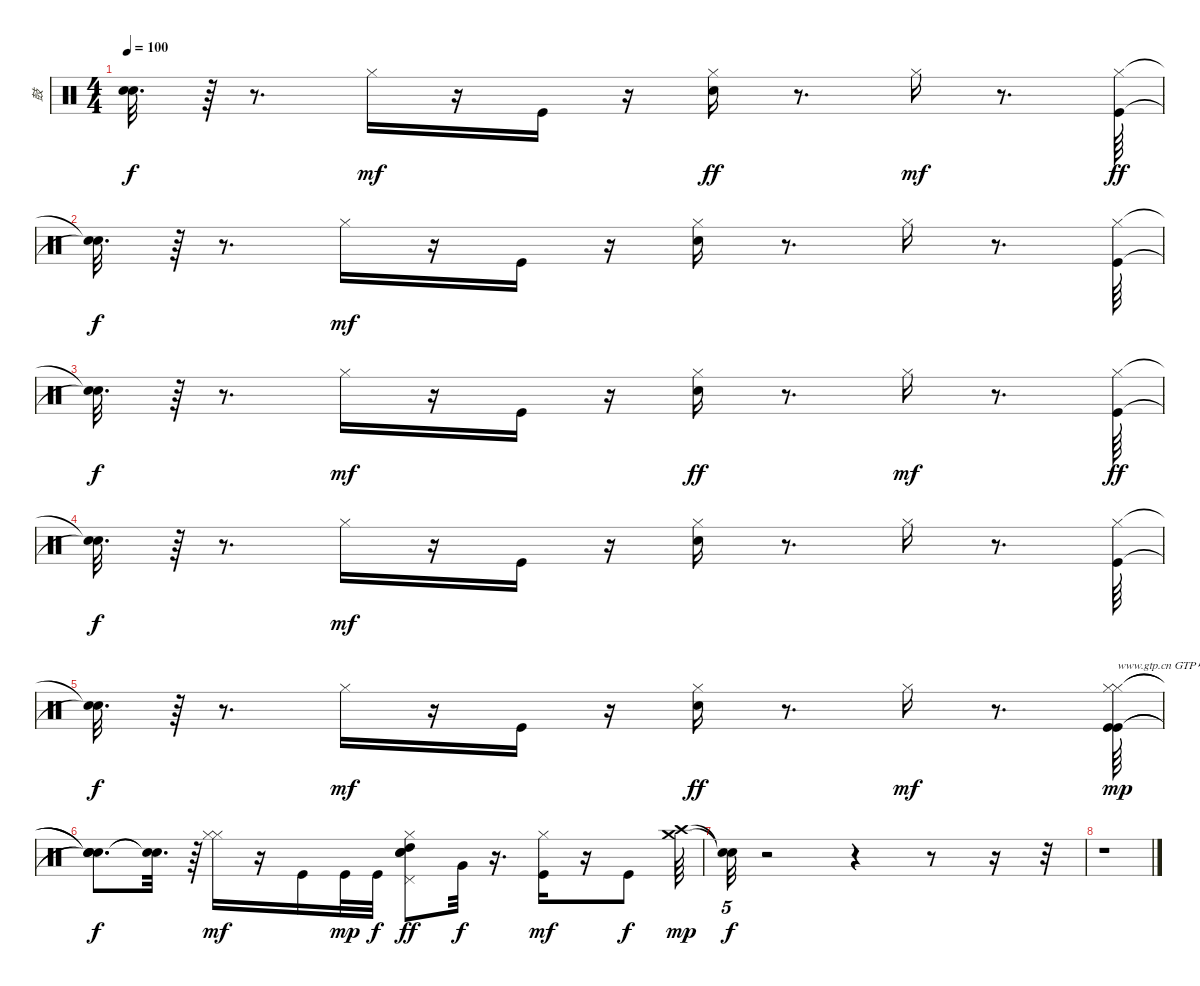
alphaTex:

\track ("鼓" "鼓") {instrument percussion}
\staff {score}
\articulation defaults
\ts (4 4)
\tempo 100
\clef neutral
\ks c
("Snare (hit)"{t} "Snare (hit)"{t}).32{d dy f} r.64 r.8{d} "Hi-Hat (closed)".16{dy mf} r.16 "Kick (hit)".16 r.16 ("Hi-Hat (closed)" "Electric Snare (hit)").16{dy ff} r.8{d} "Hi-Hat (closed)".16{dy mf} r.8{d} ("Kick (hit)" "Hi-Hat (closed)").64{dy ff} |
("Snare (hit)"{t} "Snare (hit)"{t}).32{d dy f} r.64 r.8{d} "Hi-Hat (closed)".16{dy mf} r.16 "Kick (hit)".16 r.16 ("Electric Snare (hit)" "Hi-Hat (closed)").16 r.8{d} "Hi-Hat (closed)".16 r.8{d} ("Kick (hit)" "Hi-Hat (closed)").64 |
("Snare (hit)"{t} "Snare (hit)"{t}).32{d dy f} r.64 r.8{d} "Hi-Hat (closed)".16{dy mf} r.16 "Kick (hit)".16 r.16 ("Hi-Hat (closed)" "Electric Snare (hit)").16{dy ff} r.8{d} "Hi-Hat (closed)".16{dy mf} r.8{d} ("Kick (hit)" "Hi-Hat (closed)").64{dy ff} |
("Snare (hit)"{t} "Snare (hit)"{t}).32{d dy f} r.64 r.8{d} "Hi-Hat (closed)".16{dy mf} r.16 "Kick (hit)".16 r.16 ("Electric Snare (hit)" "Hi-Hat (closed)").16 r.8{d} "Hi-Hat (closed)".16 r.8{d} ("Kick (hit)" "Hi-Hat (closed)").64 |
("Snare (hit)"{t} "Snare (hit)"{t}).32{d dy f} r.64 r.8{d} "Hi-Hat (closed)".16{dy mf} r.16 "Kick (hit)".16 r.16 ("Hi-Hat (closed)" "Electric Snare (hit)").16{dy ff} r.8{d} "Hi-Hat (closed)".16{dy mf} r.8{d} ("Kick (hit)" "Kick (hit)" "Hi-Hat (closed)" "Hi-Hat (closed)").64{txt "www.gtp.cn GTP中文网为您提供优秀的谱子" dy mp} |
("Snare (hit)"{t} "Snare (hit)"{t} "Snare (hit)"{t} "Snare (hit)"{t}).8{d dy f} ("Snare (hit)"{t} "Snare (hit)"{t}).32{d} r.64 ("Hi-Hat (closed)" "Hi-Hat (closed)").16{dy mf} r.16 "Kick (hit)".16 "Kick (hit)".32{dy mp} "Kick (hit)".32{dy f} ("High Tom (hit)" "Pedal Hi-Hat (hit)" "Electric Snare (hit)" "Hi-Hat (closed)" "Electric Snare (hit)").8{dy ff} "Very Low Tom (hit)".32{dy f} r.16{d} ("Kick (hit)" "Hi-Hat (closed)").16{dy mf} r.16 "Kick (hit)".8{dy f} ("Crash medium (hit)" "Crash high (hit)").64{dy mp} |
("Snare (hit)"{t} "Snare (hit)"{t}).32{tu (5 4) dy f} r.2 r.4 r.8 r.16 r.32 |
r.1
